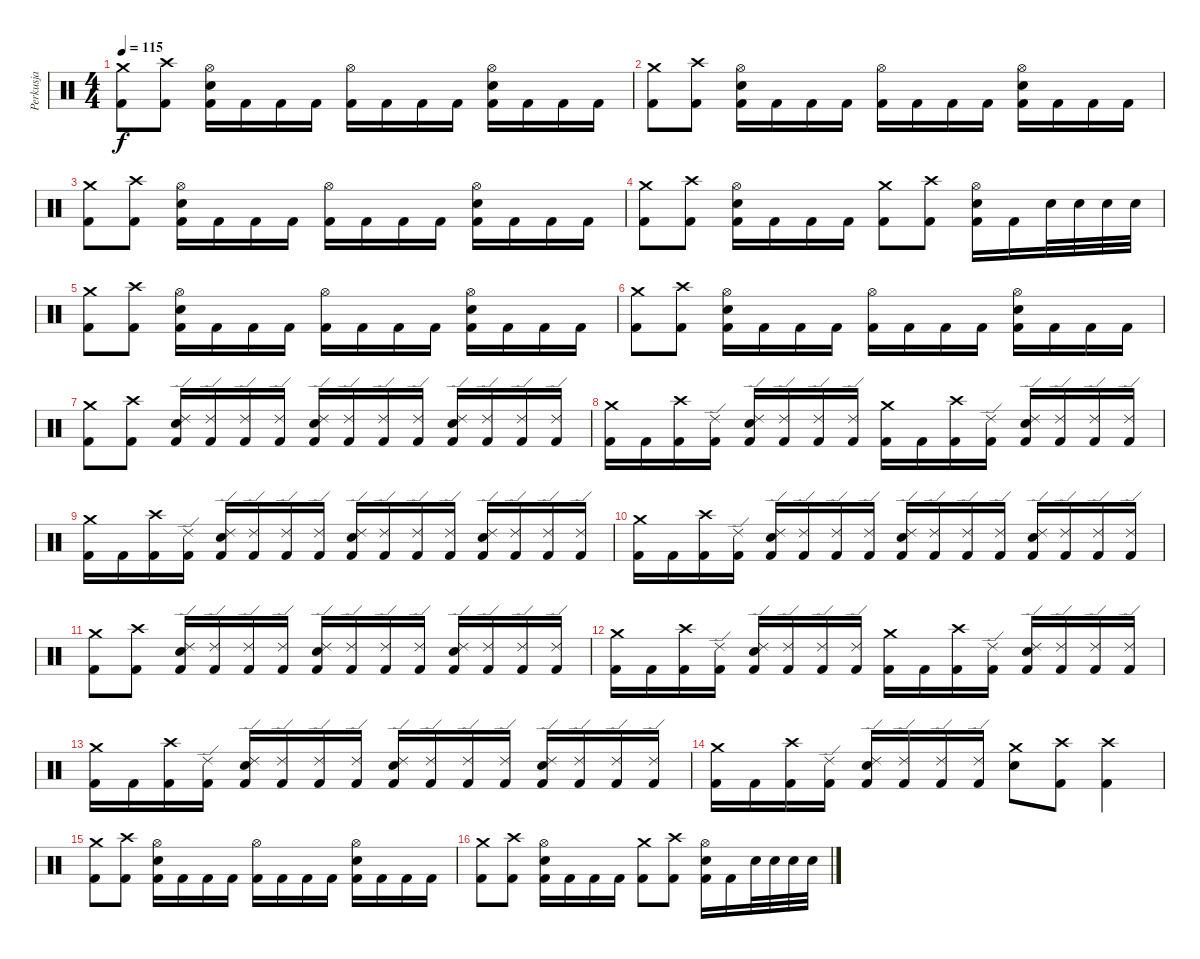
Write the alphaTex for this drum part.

\track ("Perkusja" "Perkusja") {instrument percussion}
\staff {score}
\articulation defaults
\ts (4 4)
\tempo 115
\clef neutral
\ks c
("Crash medium (hit)" "Kick (hit) 2").8{dy f} ("Crash high (hit)" "Kick (hit) 2").8 ("Kick (hit) 2" "Snare (hit) 2" "Hi-Hat (open)").16 "Kick (hit) 2".16 "Kick (hit) 2".16 "Kick (hit) 2".16 ("Kick (hit) 2" "Hi-Hat (open)").16 "Kick (hit) 2".16 "Kick (hit) 2".16 "Kick (hit) 2".16 ("Kick (hit) 2" "Snare (hit) 2" "Hi-Hat (open)").16 "Kick (hit) 2".16 "Kick (hit) 2".16 "Kick (hit) 2".16 |
("Crash medium (hit)" "Kick (hit) 2").8 ("Crash high (hit)" "Kick (hit) 2").8 ("Kick (hit) 2" "Snare (hit) 2" "Hi-Hat (open)").16 "Kick (hit) 2".16 "Kick (hit) 2".16 "Kick (hit) 2".16 ("Kick (hit) 2" "Hi-Hat (open)").16 "Kick (hit) 2".16 "Kick (hit) 2".16 "Kick (hit) 2".16 ("Kick (hit) 2" "Snare (hit) 2" "Hi-Hat (open)").16 "Kick (hit) 2".16 "Kick (hit) 2".16 "Kick (hit) 2".16 |
("Crash medium (hit)" "Kick (hit) 2").8 ("Crash high (hit)" "Kick (hit) 2").8 ("Kick (hit) 2" "Snare (hit) 2" "Hi-Hat (open)").16 "Kick (hit) 2".16 "Kick (hit) 2".16 "Kick (hit) 2".16 ("Kick (hit) 2" "Hi-Hat (open)").16 "Kick (hit) 2".16 "Kick (hit) 2".16 "Kick (hit) 2".16 ("Kick (hit) 2" "Snare (hit) 2" "Hi-Hat (open)").16 "Kick (hit) 2".16 "Kick (hit) 2".16 "Kick (hit) 2".16 |
("Crash medium (hit)" "Kick (hit) 2").8 ("Crash high (hit)" "Kick (hit) 2").8 ("Kick (hit) 2" "Snare (hit) 2" "Hi-Hat (open)").16 "Kick (hit) 2".16 "Kick (hit) 2".16 "Kick (hit) 2".16 ("Crash medium (hit)" "Kick (hit) 2").8 ("Crash high (hit)" "Kick (hit) 2").8 ("Kick (hit) 2" "Snare (hit) 2" "Hi-Hat (open)").16 "Kick (hit) 2".16 "Snare (hit) 2".32 "Snare (hit) 2".32 "Snare (hit) 2".32 "Snare (hit) 2".32 |
("Crash medium (hit)" "Kick (hit) 2").8 ("Crash high (hit)" "Kick (hit) 2").8 ("Kick (hit) 2" "Snare (hit) 2" "Hi-Hat (open)").16 "Kick (hit) 2".16 "Kick (hit) 2".16 "Kick (hit) 2".16 ("Kick (hit) 2" "Hi-Hat (open)").16 "Kick (hit) 2".16 "Kick (hit) 2".16 "Kick (hit) 2".16 ("Kick (hit) 2" "Snare (hit) 2" "Hi-Hat (open)").16 "Kick (hit) 2".16 "Kick (hit) 2".16 "Kick (hit) 2".16 |
("Crash medium (hit)" "Kick (hit) 2").8 ("Crash high (hit)" "Kick (hit) 2").8 ("Kick (hit) 2" "Snare (hit) 2" "Hi-Hat (open)").16 "Kick (hit) 2".16 "Kick (hit) 2".16 "Kick (hit) 2".16 ("Kick (hit) 2" "Hi-Hat (open)").16 "Kick (hit) 2".16 "Kick (hit) 2".16 "Kick (hit) 2".16 ("Kick (hit) 2" "Snare (hit) 2" "Hi-Hat (open)").16 "Kick (hit) 2".16 "Kick (hit) 2".16 "Kick (hit) 2".16 |
("Crash medium (hit)" "Kick (hit) 2").8 ("Crash high (hit)" "Kick (hit) 2").8 ("Kick (hit) 2" "Snare (hit) 2" "Ride (edge) 2").16 ("Kick (hit) 2" "Ride (edge) 2").16 ("Kick (hit) 2" "Ride (edge) 2").16 ("Kick (hit) 2" "Ride (edge) 2").16 ("Kick (hit) 2" "Ride (edge) 2" "Snare (hit) 2").16 ("Kick (hit) 2" "Ride (edge) 2").16 ("Kick (hit) 2" "Ride (edge) 2").16 ("Kick (hit) 2" "Ride (edge) 2").16 ("Kick (hit) 2" "Ride (edge) 2" "Snare (hit) 2").16 ("Kick (hit) 2" "Ride (edge) 2").16 ("Kick (hit) 2" "Ride (edge) 2").16 ("Kick (hit) 2" "Ride (edge) 2").16 |
("Kick (hit) 2" "Crash medium (hit)").16 "Kick (hit) 2".16 ("Kick (hit) 2" "Crash high (hit)").16 ("Kick (hit) 2" "Ride (edge) 2").16 ("Kick (hit) 2" "Snare (hit) 2" "Ride (edge) 2").16 ("Kick (hit) 2" "Ride (edge) 2").16 ("Kick (hit) 2" "Ride (edge) 2").16 ("Kick (hit) 2" "Ride (edge) 2").16 ("Kick (hit) 2" "Crash medium (hit)").16 "Kick (hit) 2".16 ("Kick (hit) 2" "Crash high (hit)").16 ("Kick (hit) 2" "Ride (edge) 2").16 ("Kick (hit) 2" "Ride (edge) 2" "Snare (hit) 2").16 ("Kick (hit) 2" "Ride (edge) 2").16 ("Kick (hit) 2" "Ride (edge) 2").16 ("Kick (hit) 2" "Ride (edge) 2").16 |
("Kick (hit) 2" "Crash medium (hit)").16 "Kick (hit) 2".16 ("Kick (hit) 2" "Crash high (hit)").16 ("Kick (hit) 2" "Ride (edge) 2").16 ("Kick (hit) 2" "Snare (hit) 2" "Ride (edge) 2").16 ("Kick (hit) 2" "Ride (edge) 2").16 ("Kick (hit) 2" "Ride (edge) 2").16 ("Kick (hit) 2" "Ride (edge) 2").16 ("Kick (hit) 2" "Ride (edge) 2" "Snare (hit) 2").16 ("Kick (hit) 2" "Ride (edge) 2").16 ("Kick (hit) 2" "Ride (edge) 2").16 ("Kick (hit) 2" "Ride (edge) 2").16 ("Kick (hit) 2" "Ride (edge) 2" "Snare (hit) 2").16 ("Kick (hit) 2" "Ride (edge) 2").16 ("Kick (hit) 2" "Ride (edge) 2").16 ("Kick (hit) 2" "Ride (edge) 2").16 |
("Kick (hit) 2" "Crash medium (hit)").16 "Kick (hit) 2".16 ("Kick (hit) 2" "Crash high (hit)").16 ("Kick (hit) 2" "Ride (edge) 2").16 ("Kick (hit) 2" "Snare (hit) 2" "Ride (edge) 2").16 ("Kick (hit) 2" "Ride (edge) 2").16 ("Kick (hit) 2" "Ride (edge) 2").16 ("Kick (hit) 2" "Ride (edge) 2").16 ("Kick (hit) 2" "Ride (edge) 2" "Snare (hit) 2").16 ("Kick (hit) 2" "Ride (edge) 2").16 ("Kick (hit) 2" "Ride (edge) 2").16 ("Kick (hit) 2" "Ride (edge) 2").16 ("Kick (hit) 2" "Ride (edge) 2" "Snare (hit) 2").16 ("Kick (hit) 2" "Ride (edge) 2").16 ("Kick (hit) 2" "Ride (edge) 2").16 ("Kick (hit) 2" "Ride (edge) 2").16 |
("Crash medium (hit)" "Kick (hit) 2").8 ("Crash high (hit)" "Kick (hit) 2").8 ("Kick (hit) 2" "Snare (hit) 2" "Ride (edge) 2").16 ("Kick (hit) 2" "Ride (edge) 2").16 ("Kick (hit) 2" "Ride (edge) 2").16 ("Kick (hit) 2" "Ride (edge) 2").16 ("Kick (hit) 2" "Ride (edge) 2" "Snare (hit) 2").16 ("Kick (hit) 2" "Ride (edge) 2").16 ("Kick (hit) 2" "Ride (edge) 2").16 ("Kick (hit) 2" "Ride (edge) 2").16 ("Kick (hit) 2" "Ride (edge) 2" "Snare (hit) 2").16 ("Kick (hit) 2" "Ride (edge) 2").16 ("Kick (hit) 2" "Ride (edge) 2").16 ("Kick (hit) 2" "Ride (edge) 2").16 |
("Kick (hit) 2" "Crash medium (hit)").16 "Kick (hit) 2".16 ("Kick (hit) 2" "Crash high (hit)").16 ("Kick (hit) 2" "Ride (edge) 2").16 ("Kick (hit) 2" "Snare (hit) 2" "Ride (edge) 2").16 ("Kick (hit) 2" "Ride (edge) 2").16 ("Kick (hit) 2" "Ride (edge) 2").16 ("Kick (hit) 2" "Ride (edge) 2").16 ("Kick (hit) 2" "Crash medium (hit)").16 "Kick (hit) 2".16 ("Kick (hit) 2" "Crash high (hit)").16 ("Kick (hit) 2" "Ride (edge) 2").16 ("Kick (hit) 2" "Ride (edge) 2" "Snare (hit) 2").16 ("Kick (hit) 2" "Ride (edge) 2").16 ("Kick (hit) 2" "Ride (edge) 2").16 ("Kick (hit) 2" "Ride (edge) 2").16 |
("Kick (hit) 2" "Crash medium (hit)").16 "Kick (hit) 2".16 ("Kick (hit) 2" "Crash high (hit)").16 ("Kick (hit) 2" "Ride (edge) 2").16 ("Kick (hit) 2" "Snare (hit) 2" "Ride (edge) 2").16 ("Kick (hit) 2" "Ride (edge) 2").16 ("Kick (hit) 2" "Ride (edge) 2").16 ("Kick (hit) 2" "Ride (edge) 2").16 ("Kick (hit) 2" "Ride (edge) 2" "Snare (hit) 2").16 ("Kick (hit) 2" "Ride (edge) 2").16 ("Kick (hit) 2" "Ride (edge) 2").16 ("Kick (hit) 2" "Ride (edge) 2").16 ("Kick (hit) 2" "Ride (edge) 2" "Snare (hit) 2").16 ("Kick (hit) 2" "Ride (edge) 2").16 ("Kick (hit) 2" "Ride (edge) 2").16 ("Kick (hit) 2" "Ride (edge) 2").16 |
("Kick (hit) 2" "Crash medium (hit)").16 "Kick (hit) 2".16 ("Kick (hit) 2" "Crash high (hit)").16 ("Kick (hit) 2" "Ride (edge) 2").16 ("Kick (hit) 2" "Snare (hit) 2" "Ride (edge) 2").16 ("Kick (hit) 2" "Ride (edge) 2").16 ("Kick (hit) 2" "Ride (edge) 2").16 ("Kick (hit) 2" "Ride (edge) 2").16 ("Crash medium (hit)" "Snare (hit) 2").8 ("Kick (hit) 2" "Crash high (hit)").8 ("Kick (hit) 2" "Crash high (hit)").4 |
("Crash medium (hit)" "Kick (hit) 2").8 ("Crash high (hit)" "Kick (hit) 2").8 ("Kick (hit) 2" "Snare (hit) 2" "Hi-Hat (open)").16 "Kick (hit) 2".16 "Kick (hit) 2".16 "Kick (hit) 2".16 ("Kick (hit) 2" "Hi-Hat (open)").16 "Kick (hit) 2".16 "Kick (hit) 2".16 "Kick (hit) 2".16 ("Kick (hit) 2" "Snare (hit) 2" "Hi-Hat (open)").16 "Kick (hit) 2".16 "Kick (hit) 2".16 "Kick (hit) 2".16 |
("Crash medium (hit)" "Kick (hit) 2").8 ("Crash high (hit)" "Kick (hit) 2").8 ("Kick (hit) 2" "Snare (hit) 2" "Hi-Hat (open)").16 "Kick (hit) 2".16 "Kick (hit) 2".16 "Kick (hit) 2".16 ("Crash medium (hit)" "Kick (hit) 2").8 ("Crash high (hit)" "Kick (hit) 2").8 ("Kick (hit) 2" "Snare (hit) 2" "Hi-Hat (open)").16 "Kick (hit) 2".16 "Snare (hit) 2".32 "Snare (hit) 2".32 "Snare (hit) 2".32 "Snare (hit) 2".32
